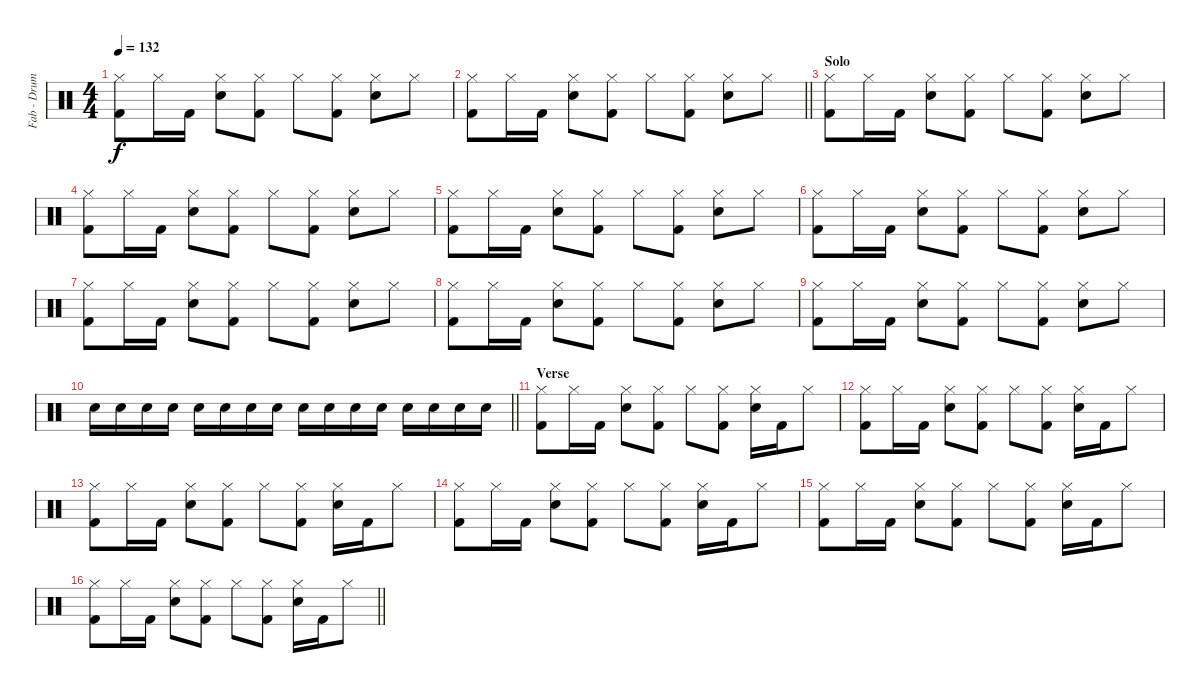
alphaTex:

\track ("Fab - Drums MIDI" "Fab - Drum") {instrument percussion}
\staff {score}
\articulation defaults
\ts (4 4)
\tempo 132
\clef neutral
\ks c
("Hi-Hat (closed)" "Kick (hit) 2").8{dy f} "Hi-Hat (closed)".16 "Kick (hit) 2".16 ("Hi-Hat (closed)" "Snare (hit) 2").8 ("Hi-Hat (closed)" "Kick (hit) 2").8 "Hi-Hat (closed)".8 ("Hi-Hat (closed)" "Kick (hit) 2").8 ("Hi-Hat (closed)" "Snare (hit) 2").8 "Hi-Hat (closed)".8 |
\barLineRight lightlight
("Hi-Hat (closed)" "Kick (hit) 2").8 "Hi-Hat (closed)".16 "Kick (hit) 2".16 ("Hi-Hat (closed)" "Snare (hit) 2").8 ("Hi-Hat (closed)" "Kick (hit) 2").8 "Hi-Hat (closed)".8 ("Hi-Hat (closed)" "Kick (hit) 2").8 ("Hi-Hat (closed)" "Snare (hit) 2").8 "Hi-Hat (closed)".8 |
\section ("" "Solo")
("Hi-Hat (closed)" "Kick (hit) 2").8 "Hi-Hat (closed)".16 "Kick (hit) 2".16 ("Hi-Hat (closed)" "Snare (hit) 2").8 ("Hi-Hat (closed)" "Kick (hit) 2").8 "Hi-Hat (closed)".8 ("Hi-Hat (closed)" "Kick (hit) 2").8 ("Hi-Hat (closed)" "Snare (hit) 2").8 "Hi-Hat (closed)".8 |
("Hi-Hat (closed)" "Kick (hit) 2").8 "Hi-Hat (closed)".16 "Kick (hit) 2".16 ("Hi-Hat (closed)" "Snare (hit) 2").8 ("Hi-Hat (closed)" "Kick (hit) 2").8 "Hi-Hat (closed)".8 ("Hi-Hat (closed)" "Kick (hit) 2").8 ("Hi-Hat (closed)" "Snare (hit) 2").8 "Hi-Hat (closed)".8 |
("Hi-Hat (closed)" "Kick (hit) 2").8 "Hi-Hat (closed)".16 "Kick (hit) 2".16 ("Hi-Hat (closed)" "Snare (hit) 2").8 ("Hi-Hat (closed)" "Kick (hit) 2").8 "Hi-Hat (closed)".8 ("Hi-Hat (closed)" "Kick (hit) 2").8 ("Hi-Hat (closed)" "Snare (hit) 2").8 "Hi-Hat (closed)".8 |
("Hi-Hat (closed)" "Kick (hit) 2").8 "Hi-Hat (closed)".16 "Kick (hit) 2".16 ("Hi-Hat (closed)" "Snare (hit) 2").8 ("Hi-Hat (closed)" "Kick (hit) 2").8 "Hi-Hat (closed)".8 ("Hi-Hat (closed)" "Kick (hit) 2").8 ("Hi-Hat (closed)" "Snare (hit) 2").8 "Hi-Hat (closed)".8 |
("Hi-Hat (closed)" "Kick (hit) 2").8 "Hi-Hat (closed)".16 "Kick (hit) 2".16 ("Hi-Hat (closed)" "Snare (hit) 2").8 ("Hi-Hat (closed)" "Kick (hit) 2").8 "Hi-Hat (closed)".8 ("Hi-Hat (closed)" "Kick (hit) 2").8 ("Hi-Hat (closed)" "Snare (hit) 2").8 "Hi-Hat (closed)".8 |
("Hi-Hat (closed)" "Kick (hit) 2").8 "Hi-Hat (closed)".16 "Kick (hit) 2".16 ("Hi-Hat (closed)" "Snare (hit) 2").8 ("Hi-Hat (closed)" "Kick (hit) 2").8 "Hi-Hat (closed)".8 ("Hi-Hat (closed)" "Kick (hit) 2").8 ("Hi-Hat (closed)" "Snare (hit) 2").8 "Hi-Hat (closed)".8 |
("Hi-Hat (closed)" "Kick (hit) 2").8 "Hi-Hat (closed)".16 "Kick (hit) 2".16 ("Hi-Hat (closed)" "Snare (hit) 2").8 ("Hi-Hat (closed)" "Kick (hit) 2").8 "Hi-Hat (closed)".8 ("Hi-Hat (closed)" "Kick (hit) 2").8 ("Hi-Hat (closed)" "Snare (hit) 2").8 "Hi-Hat (closed)".8 |
\barLineRight lightlight "Snare (hit) 2".16{volume 9} "Snare (hit) 2".16{volume 13} "Snare (hit) 2".16 "Snare (hit) 2".16 "Snare (hit) 2".16 "Snare (hit) 2".16 "Snare (hit) 2".16 "Snare (hit) 2".16 "Snare (hit) 2".16 "Snare (hit) 2".16 "Snare (hit) 2".16 "Snare (hit) 2".16 "Snare (hit) 2".16 "Snare (hit) 2".16 "Snare (hit) 2".16 "Snare (hit) 2".16
|
\section ("" "Verse")
("Hi-Hat (closed)" "Kick (hit) 2").8 "Hi-Hat (closed)".16 "Kick (hit) 2".16 ("Hi-Hat (closed)" "Snare (hit) 2").8 ("Hi-Hat (closed)" "Kick (hit) 2").8 "Hi-Hat (closed)".8 ("Hi-Hat (closed)" "Kick (hit) 2").8 ("Hi-Hat (closed)" "Snare (hit) 2").16 "Kick (hit) 2".16 "Hi-Hat (closed)".8 |
("Hi-Hat (closed)" "Kick (hit) 2").8 "Hi-Hat (closed)".16 "Kick (hit) 2".16 ("Hi-Hat (closed)" "Snare (hit) 2").8 ("Hi-Hat (closed)" "Kick (hit) 2").8 "Hi-Hat (closed)".8 ("Hi-Hat (closed)" "Kick (hit) 2").8 ("Hi-Hat (closed)" "Snare (hit) 2").16 "Kick (hit) 2".16 "Hi-Hat (closed)".8 |
("Hi-Hat (closed)" "Kick (hit) 2").8 "Hi-Hat (closed)".16 "Kick (hit) 2".16 ("Hi-Hat (closed)" "Snare (hit) 2").8 ("Hi-Hat (closed)" "Kick (hit) 2").8 "Hi-Hat (closed)".8 ("Hi-Hat (closed)" "Kick (hit) 2").8 ("Hi-Hat (closed)" "Snare (hit) 2").16 "Kick (hit) 2".16 "Hi-Hat (closed)".8 |
("Hi-Hat (closed)" "Kick (hit) 2").8 "Hi-Hat (closed)".16 "Kick (hit) 2".16 ("Hi-Hat (closed)" "Snare (hit) 2").8 ("Hi-Hat (closed)" "Kick (hit) 2").8 "Hi-Hat (closed)".8 ("Hi-Hat (closed)" "Kick (hit) 2").8 ("Hi-Hat (closed)" "Snare (hit) 2").16 "Kick (hit) 2".16 "Hi-Hat (closed)".8 |
("Hi-Hat (closed)" "Kick (hit) 2").8 "Hi-Hat (closed)".16 "Kick (hit) 2".16 ("Hi-Hat (closed)" "Snare (hit) 2").8 ("Hi-Hat (closed)" "Kick (hit) 2").8 "Hi-Hat (closed)".8 ("Hi-Hat (closed)" "Kick (hit) 2").8 ("Hi-Hat (closed)" "Snare (hit) 2").16 "Kick (hit) 2".16 "Hi-Hat (closed)".8 |
\barLineRight lightlight
("Hi-Hat (closed)" "Kick (hit) 2").8 "Hi-Hat (closed)".16 "Kick (hit) 2".16 ("Hi-Hat (closed)" "Snare (hit) 2").8 ("Hi-Hat (closed)" "Kick (hit) 2").8 "Hi-Hat (closed)".8 ("Hi-Hat (closed)" "Kick (hit) 2").8 ("Hi-Hat (closed)" "Snare (hit) 2").16 "Kick (hit) 2".16 "Hi-Hat (closed)".8
